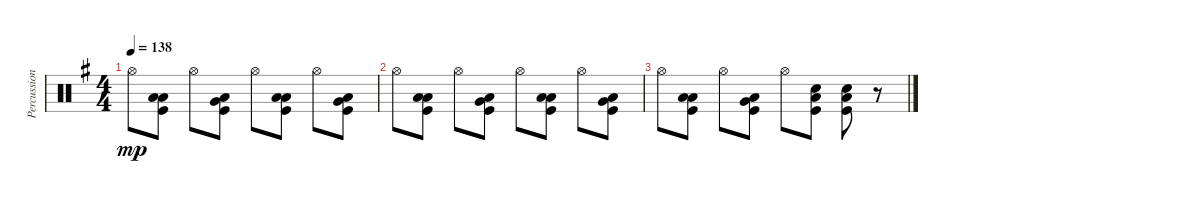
\track ("Percussion" "Percussion") {instrument percussion}
\staff {score}
\articulation defaults
\ts (4 4)
\tempo 138
\clef neutral
\ks g "Hi-Hat (open)".8{dy mp}
("Low Tom (hit)" "Low Floor Tom (hit)" "Kick (hit)").8 "Hi-Hat (open)".8 ("Very Low Tom (hit)" "Low Floor Tom (hit)" "Kick (hit)").8 "Hi-Hat (open)".8 ("Low Floor Tom (hit)" "Low Floor Tom (hit)" "Kick (hit)").8 "Hi-Hat (open)".8 ("Very Low Tom (hit)" "Low Floor Tom (hit)" "Kick (hit)").8 |
"Hi-Hat (open)".8 ("Low Tom (hit)" "Low Floor Tom (hit)" "Kick (hit)").8 "Hi-Hat (open)".8 ("Very Low Tom (hit)" "Low Floor Tom (hit)" "Kick (hit)").8 "Hi-Hat (open)".8 ("Low Floor Tom (hit)" "Low Floor Tom (hit)" "Kick (hit)").8 "Hi-Hat (open)".8 ("Very Low Tom (hit)" "Low Floor Tom (hit)" "Kick (hit)").8 |
"Hi-Hat (open)".8 ("Low Tom (hit)" "Low Floor Tom (hit)" "Kick (hit)").8 "Hi-Hat (open)".8 ("Very Low Tom (hit)" "Low Floor Tom (hit)" "Kick (hit)").8 "Hi-Hat (open)".8 ("Snare (hit) 2" "Low Floor Tom (hit)" "Kick (hit)").8 ("Snare (hit) 2" "Low Floor Tom (hit)" "Kick (hit)").8 r.8
